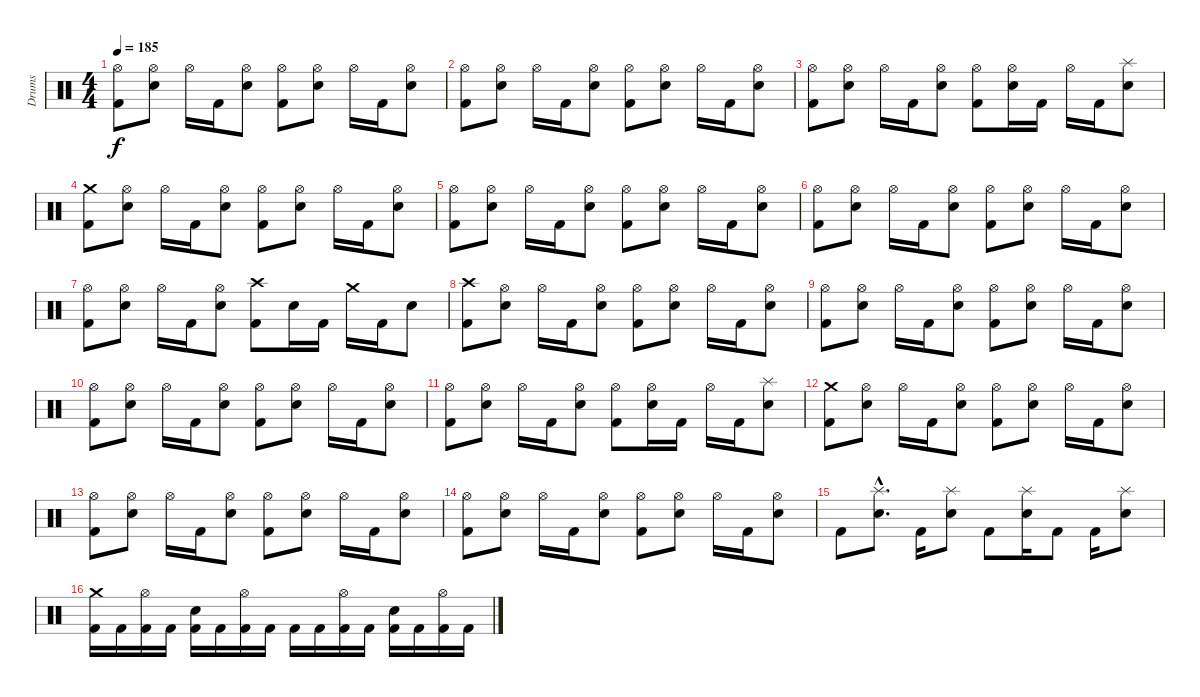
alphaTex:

\track ("Drums" "Drums") {instrument percussion}
\staff {score}
\articulation defaults
\ts (4 4)
\tempo 185
\clef neutral
\ks c
("Hi-Hat (open)" "Kick (hit) 2").8{dy f} ("Hi-Hat (open)" "Electric Snare (hit)").8 "Hi-Hat (open)".16 "Kick (hit) 2".16 ("Hi-Hat (open)" "Electric Snare (hit)").8 ("Hi-Hat (open)" "Kick (hit) 2").8 ("Hi-Hat (open)" "Electric Snare (hit)").8 "Hi-Hat (open)".16 "Kick (hit) 2".16 ("Hi-Hat (open)" "Electric Snare (hit)").8 |
("Hi-Hat (open)" "Kick (hit) 2").8 ("Hi-Hat (open)" "Electric Snare (hit)").8 "Hi-Hat (open)".16 "Kick (hit) 2".16 ("Hi-Hat (open)" "Electric Snare (hit)").8 ("Hi-Hat (open)" "Kick (hit) 2").8 ("Hi-Hat (open)" "Electric Snare (hit)").8 "Hi-Hat (open)".16 "Kick (hit) 2".16 ("Hi-Hat (open)" "Electric Snare (hit)").8 |
("Hi-Hat (open)" "Kick (hit) 2").8 ("Hi-Hat (open)" "Electric Snare (hit)").8 "Hi-Hat (open)".16 "Kick (hit) 2".16 ("Hi-Hat (open)" "Electric Snare (hit)").8 ("Hi-Hat (open)" "Kick (hit) 2").8 ("Hi-Hat (open)" "Electric Snare (hit)").16 "Kick (hit) 2".16 "Hi-Hat (open)".16 "Kick (hit) 2".16 ("Splash (hit)" "Electric Snare (hit)").8 |
("Crash medium (hit)" "Kick (hit) 2").8 ("Hi-Hat (open)" "Electric Snare (hit)").8 "Hi-Hat (open)".16 "Kick (hit) 2".16 ("Hi-Hat (open)" "Electric Snare (hit)").8 ("Hi-Hat (open)" "Kick (hit) 2").8 ("Hi-Hat (open)" "Electric Snare (hit)").8 "Hi-Hat (open)".16 "Kick (hit) 2".16 ("Hi-Hat (open)" "Electric Snare (hit)").8 |
("Hi-Hat (open)" "Kick (hit) 2").8 ("Hi-Hat (open)" "Electric Snare (hit)").8 "Hi-Hat (open)".16 "Kick (hit) 2".16 ("Hi-Hat (open)" "Electric Snare (hit)").8 ("Hi-Hat (open)" "Kick (hit) 2").8 ("Hi-Hat (open)" "Electric Snare (hit)").8 "Hi-Hat (open)".16 "Kick (hit) 2".16 ("Hi-Hat (open)" "Electric Snare (hit)").8 |
("Hi-Hat (open)" "Kick (hit) 2").8 ("Hi-Hat (open)" "Electric Snare (hit)").8 "Hi-Hat (open)".16 "Kick (hit) 2".16 ("Hi-Hat (open)" "Electric Snare (hit)").8 ("Hi-Hat (open)" "Kick (hit) 2").8 ("Hi-Hat (open)" "Electric Snare (hit)").8 "Hi-Hat (open)".16 "Kick (hit) 2".16 ("Hi-Hat (open)" "Electric Snare (hit)").8 |
("Hi-Hat (open)" "Kick (hit) 2").8 ("Hi-Hat (open)" "Electric Snare (hit)").8 "Hi-Hat (open)".16 "Kick (hit) 2".16 ("Hi-Hat (open)" "Electric Snare (hit)").8 ("Crash high (hit)" "Kick (hit) 2").8 "Electric Snare (hit)".16 "Kick (hit) 2".16 "Crash medium (hit)".16 "Kick (hit) 2".16 "Electric Snare (hit)".8 |
("Crash high (hit)" "Kick (hit) 2").8 ("Hi-Hat (open)" "Electric Snare (hit)").8 "Hi-Hat (open)".16 "Kick (hit) 2".16 ("Hi-Hat (open)" "Electric Snare (hit)").8 ("Hi-Hat (open)" "Kick (hit) 2").8 ("Hi-Hat (open)" "Electric Snare (hit)").8 "Hi-Hat (open)".16 "Kick (hit) 2".16 ("Hi-Hat (open)" "Electric Snare (hit)").8 |
("Hi-Hat (open)" "Kick (hit) 2").8 ("Hi-Hat (open)" "Electric Snare (hit)").8 "Hi-Hat (open)".16 "Kick (hit) 2".16 ("Hi-Hat (open)" "Electric Snare (hit)").8 ("Hi-Hat (open)" "Kick (hit) 2").8 ("Hi-Hat (open)" "Electric Snare (hit)").8 "Hi-Hat (open)".16 "Kick (hit) 2".16 ("Hi-Hat (open)" "Electric Snare (hit)").8 |
("Hi-Hat (open)" "Kick (hit) 2").8 ("Hi-Hat (open)" "Electric Snare (hit)").8 "Hi-Hat (open)".16 "Kick (hit) 2".16 ("Hi-Hat (open)" "Electric Snare (hit)").8 ("Hi-Hat (open)" "Kick (hit) 2").8 ("Hi-Hat (open)" "Electric Snare (hit)").8 "Hi-Hat (open)".16 "Kick (hit) 2".16 ("Hi-Hat (open)" "Electric Snare (hit)").8 |
("Hi-Hat (open)" "Kick (hit) 2").8 ("Hi-Hat (open)" "Electric Snare (hit)").8 "Hi-Hat (open)".16 "Kick (hit) 2".16 ("Hi-Hat (open)" "Electric Snare (hit)").8 ("Hi-Hat (open)" "Kick (hit) 2").8 ("Hi-Hat (open)" "Electric Snare (hit)").16 "Kick (hit) 2".16 "Hi-Hat (open)".16 "Kick (hit) 2".16 ("Splash (hit)" "Electric Snare (hit)").8 |
("Crash medium (hit)" "Kick (hit) 2").8 ("Hi-Hat (open)" "Electric Snare (hit)").8 "Hi-Hat (open)".16 "Kick (hit) 2".16 ("Hi-Hat (open)" "Electric Snare (hit)").8 ("Hi-Hat (open)" "Kick (hit) 2").8 ("Hi-Hat (open)" "Electric Snare (hit)").8 "Hi-Hat (open)".16 "Kick (hit) 2".16 ("Hi-Hat (open)" "Electric Snare (hit)").8 |
("Hi-Hat (open)" "Kick (hit) 2").8 ("Hi-Hat (open)" "Electric Snare (hit)").8 "Hi-Hat (open)".16 "Kick (hit) 2".16 ("Hi-Hat (open)" "Electric Snare (hit)").8 ("Hi-Hat (open)" "Kick (hit) 2").8 ("Hi-Hat (open)" "Electric Snare (hit)").8 "Hi-Hat (open)".16 "Kick (hit) 2".16 ("Hi-Hat (open)" "Electric Snare (hit)").8 |
("Hi-Hat (open)" "Kick (hit) 2").8 ("Hi-Hat (open)" "Electric Snare (hit)").8 "Hi-Hat (open)".16 "Kick (hit) 2".16 ("Hi-Hat (open)" "Electric Snare (hit)").8 ("Hi-Hat (open)" "Kick (hit) 2").8 ("Hi-Hat (open)" "Electric Snare (hit)").8 "Hi-Hat (open)".16 "Kick (hit) 2".16 ("Hi-Hat (open)" "Electric Snare (hit)").8 |
"Kick (hit) 2".8 ("Splash (hit)"{hac} "Electric Snare (hit)"{hac}).8{d} "Kick (hit) 2".16 ("Splash (hit)" "Electric Snare (hit)").8 "Kick (hit) 2".8 ("Splash (hit)" "Electric Snare (hit)").16 "Kick (hit) 2".8 "Kick (hit) 2".16 ("Splash (hit)" "Electric Snare (hit)").8 |
("Crash medium (hit)" "Kick (hit) 2").16 "Kick (hit) 2".16 ("Hi-Hat (open)" "Kick (hit) 2").16 "Kick (hit) 2".16 ("Electric Snare (hit)" "Kick (hit) 2").16 "Kick (hit) 2".16 ("Hi-Hat (open)" "Kick (hit) 2").16 "Kick (hit) 2".16 "Kick (hit) 2".16 "Kick (hit) 2".16 ("Hi-Hat (open)" "Kick (hit) 2").16 "Kick (hit) 2".16 ("Electric Snare (hit)" "Kick (hit) 2").16 "Kick (hit) 2".16 ("Hi-Hat (open)" "Kick (hit) 2").16 "Kick (hit) 2".16
